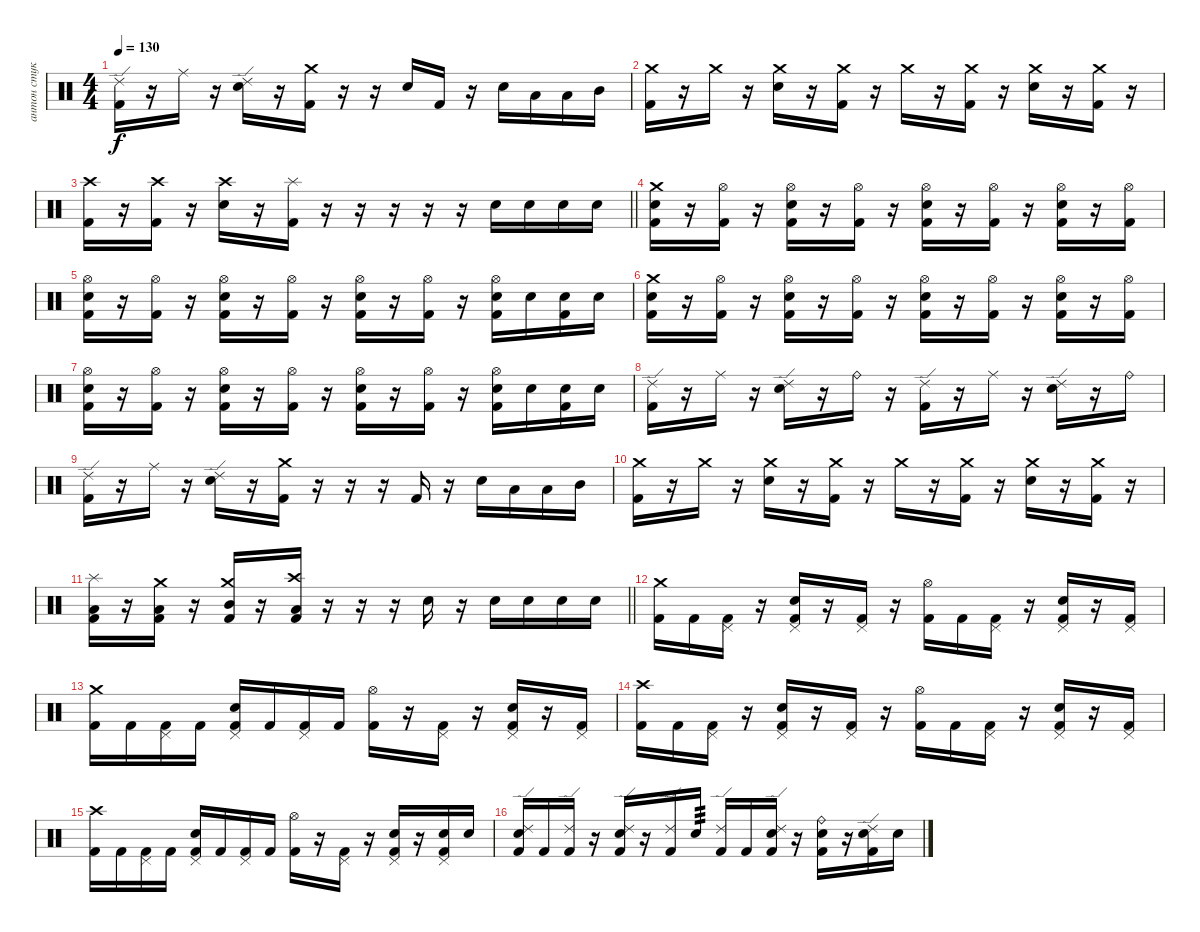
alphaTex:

\track ("антон стукачь" "антон стук") {instrument percussion}
\staff {score}
\articulation defaults
\ts (4 4)
\tempo 130
\clef neutral
\ks c
("Ride (edge) 2" "Kick (hit) 2").16{dy f} r.16 "Ride (middle)".16 r.16 ("Ride (edge) 2" "Electric Snare (hit)").16 r.16 ("Crash medium (hit)" "Kick (hit) 2").16 r.16 r.16 "Electric Snare (hit)".16 "Kick (hit) 2".16 r.16 "Electric Snare (hit)".16 "Low Tom (hit)".16 "Low Tom (hit)".16 "Mid Tom (hit)".16 |
("Crash medium (hit)" "Kick (hit) 2").16 r.16 "Crash medium (hit)".16 r.16 ("Crash medium (hit)" "Electric Snare (hit)").16 r.16 ("Crash medium (hit)" "Kick (hit) 2").16 r.16 "Crash medium (hit)".16 r.16 ("Crash medium (hit)" "Kick (hit) 2").16 r.16 ("Crash medium (hit)" "Electric Snare (hit)").16 r.16 ("Crash medium (hit)" "Kick (hit) 2").16 r.16 |
\barLineRight lightlight
("Crash high (hit)" "Kick (hit) 2").16 r.16 ("Crash high (hit)" "Kick (hit) 2").16 r.16 ("Crash high (hit)" "Electric Snare (hit)").16 r.16 ("Splash (hit)" "Kick (hit) 2").16 r.16 r.16 r.16 r.16 r.16 "Electric Snare (hit)".16 "Electric Snare (hit)".16 "Electric Snare (hit)".16 "Electric Snare (hit)".16 |
("Crash medium (hit)" "Electric Snare (hit)" "Kick (hit) 2").16 r.16 ("Hi-Hat (open)" "Kick (hit) 2").16 r.16 ("Hi-Hat (open)" "Electric Snare (hit)" "Kick (hit) 2").16 r.16 ("Hi-Hat (open)" "Kick (hit) 2").16 r.16 ("Hi-Hat (open)" "Electric Snare (hit)" "Kick (hit) 2").16 r.16 ("Hi-Hat (open)" "Kick (hit) 2").16 r.16 ("Hi-Hat (open)" "Electric Snare (hit)" "Kick (hit) 2").16 r.16 ("Hi-Hat (open)" "Kick (hit) 2").16 |
("Hi-Hat (open)" "Electric Snare (hit)" "Kick (hit) 2").16 r.16 ("Hi-Hat (open)" "Kick (hit) 2").16 r.16 ("Hi-Hat (open)" "Electric Snare (hit)" "Kick (hit) 2").16 r.16 ("Hi-Hat (open)" "Kick (hit) 2").16 r.16 ("Hi-Hat (open)" "Electric Snare (hit)" "Kick (hit) 2").16 r.16 ("Hi-Hat (open)" "Kick (hit) 2").16 r.16 ("Hi-Hat (open)" "Electric Snare (hit)" "Kick (hit) 2").16 "Electric Snare (hit)".16 ("Electric Snare (hit)" "Kick (hit) 2").16 "Electric Snare (hit)".16 |
("Crash medium (hit)" "Electric Snare (hit)" "Kick (hit) 2").16 r.16 ("Hi-Hat (open)" "Kick (hit) 2").16 r.16 ("Hi-Hat (open)" "Electric Snare (hit)" "Kick (hit) 2").16 r.16 ("Hi-Hat (open)" "Kick (hit) 2").16 r.16 ("Hi-Hat (open)" "Electric Snare (hit)" "Kick (hit) 2").16 r.16 ("Hi-Hat (open)" "Kick (hit) 2").16 r.16 ("Hi-Hat (open)" "Electric Snare (hit)" "Kick (hit) 2").16 r.16 ("Hi-Hat (open)" "Kick (hit) 2").16 |
("Hi-Hat (open)" "Electric Snare (hit)" "Kick (hit) 2").16 r.16 ("Hi-Hat (open)" "Kick (hit) 2").16 r.16 ("Hi-Hat (open)" "Electric Snare (hit)" "Kick (hit) 2").16 r.16 ("Hi-Hat (open)" "Kick (hit) 2").16 r.16 ("Hi-Hat (open)" "Electric Snare (hit)" "Kick (hit) 2").16 r.16 ("Hi-Hat (open)" "Kick (hit) 2").16 r.16 ("Hi-Hat (open)" "Electric Snare (hit)" "Kick (hit) 2").16 "Electric Snare (hit)".16 ("Electric Snare (hit)" "Kick (hit) 2").16 "Electric Snare (hit)".16 |
("Ride (edge) 2" "Kick (hit) 2").16 r.16 "Ride (middle)".16 r.16 ("Ride (edge) 2" "Electric Snare (hit)").16 r.16 "Ride (bell)".16 r.16 ("Ride (edge) 2" "Kick (hit) 2").16 r.16 "Ride (middle)".16 r.16 ("Ride (edge) 2" "Electric Snare (hit)").16 r.16 "Ride (bell)".16 |
("Ride (edge) 2" "Kick (hit) 2").16 r.16 "Ride (middle)".16 r.16 ("Ride (edge) 2" "Electric Snare (hit)").16 r.16 ("Crash medium (hit)" "Kick (hit) 2").16 r.16 r.16 r.16 "Kick (hit) 2".16 r.16 "Electric Snare (hit)".16 "Low Tom (hit)".16 "Low Tom (hit)".16 "Mid Tom (hit)".16 |
("Crash medium (hit)" "Kick (hit) 2").16 r.16 "Crash medium (hit)".16 r.16 ("Crash medium (hit)" "Electric Snare (hit)").16 r.16 ("Crash medium (hit)" "Kick (hit) 2").16 r.16 "Crash medium (hit)".16 r.16 ("Crash medium (hit)" "Kick (hit) 2").16 r.16 ("Crash medium (hit)" "Electric Snare (hit)").16 r.16 ("Crash medium (hit)" "Kick (hit) 2").16 r.16 |
\barLineRight lightlight
("Splash (hit)" "Low Tom (hit)" "Kick (hit) 2").16 r.16 ("Crash medium (hit)" "Low Tom (hit)" "Kick (hit) 2").16 r.16 ("Crash medium (hit)" "Mid Tom (hit)" "Kick (hit) 2").16 r.16 ("Crash high (hit)" "Low Floor Tom (hit)" "Kick (hit) 2").16 r.16 r.16 r.16 "Electric Snare (hit)".16 r.16 "Electric Snare (hit)".16 "Electric Snare (hit)".16 "Electric Snare (hit)".16 "Electric Snare (hit)".16 |
("Crash medium (hit)" "Kick (hit) 2").16 "Kick (hit) 2".16 ("Pedal Hi-Hat (hit)" "Kick (hit) 2").16 r.16 ("Pedal Hi-Hat (hit)" "Electric Snare (hit)" "Kick (hit) 2").16 r.16 ("Pedal Hi-Hat (hit)" "Kick (hit) 2").16 r.16 ("Hi-Hat (open)" "Kick (hit) 2").16 "Kick (hit) 2".16 ("Pedal Hi-Hat (hit)" "Kick (hit) 2").16 r.16 ("Pedal Hi-Hat (hit)" "Electric Snare (hit)" "Kick (hit) 2").16 r.16 ("Pedal Hi-Hat (hit)" "Kick (hit) 2").16 |
("Crash medium (hit)" "Kick (hit) 2").16 "Kick (hit) 2".16 ("Pedal Hi-Hat (hit)" "Kick (hit) 2").16 "Kick (hit) 2".16 ("Pedal Hi-Hat (hit)" "Electric Snare (hit)" "Kick (hit) 2").16 "Kick (hit) 2".16 ("Pedal Hi-Hat (hit)" "Kick (hit) 2").16 "Kick (hit) 2".16 ("Hi-Hat (open)" "Kick (hit) 2").16 r.16 ("Pedal Hi-Hat (hit)" "Kick (hit) 2").16 r.16 ("Pedal Hi-Hat (hit)" "Electric Snare (hit)" "Kick (hit) 2").16 r.16 ("Pedal Hi-Hat (hit)" "Kick (hit) 2").16 |
("Crash high (hit)" "Kick (hit) 2").16 "Kick (hit) 2".16 ("Pedal Hi-Hat (hit)" "Kick (hit) 2").16 r.16 ("Pedal Hi-Hat (hit)" "Electric Snare (hit)" "Kick (hit) 2").16 r.16 ("Pedal Hi-Hat (hit)" "Kick (hit) 2").16 r.16 ("Hi-Hat (open)" "Kick (hit) 2").16 "Kick (hit) 2".16 ("Pedal Hi-Hat (hit)" "Kick (hit) 2").16 r.16 ("Pedal Hi-Hat (hit)" "Electric Snare (hit)" "Kick (hit) 2").16 r.16 ("Pedal Hi-Hat (hit)" "Kick (hit) 2").16 |
("Crash high (hit)" "Kick (hit) 2").16 "Kick (hit) 2".16 ("Pedal Hi-Hat (hit)" "Kick (hit) 2").16 "Kick (hit) 2".16 ("Pedal Hi-Hat (hit)" "Electric Snare (hit)" "Kick (hit) 2").16 "Kick (hit) 2".16 ("Pedal Hi-Hat (hit)" "Kick (hit) 2").16 "Kick (hit) 2".16 ("Hi-Hat (open)" "Kick (hit) 2").16 r.16 ("Pedal Hi-Hat (hit)" "Kick (hit) 2").16 r.16 ("Pedal Hi-Hat (hit)" "Electric Snare (hit)" "Kick (hit) 2").16 r.16 ("Pedal Hi-Hat (hit)" "Electric Snare (hit)" "Kick (hit) 2").16 "Electric Snare (hit)".16 |
("Ride (edge) 2" "Electric Snare (hit)" "Kick (hit) 2").16 "Kick (hit) 2".16 ("Ride (edge) 2" "Kick (hit) 2").16 r.16 ("Ride (edge) 2" "Electric Snare (hit)" "Kick (hit) 2").16 r.16 ("Ride (edge) 2" "Kick (hit) 2").16 "Electric Snare (hit)".16{tp 3} ("Ride (edge) 2" "Kick (hit) 2").16 "Kick (hit) 2".16 ("Ride (edge) 2" "Electric Snare (hit)" "Kick (hit) 2").16 r.16 ("Ride (bell)" "Electric Snare (hit)" "Kick (hit) 2").16 r.16 ("Ride (edge) 2" "Electric Snare (hit)" "Kick (hit) 2").16 "Electric Snare (hit)".16
